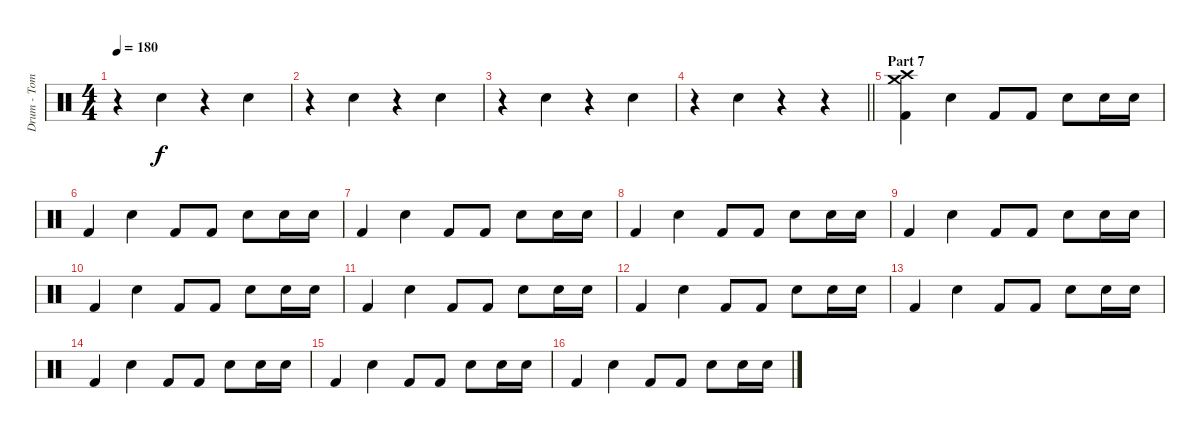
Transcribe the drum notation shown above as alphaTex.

\track ("Drum - Tom" "Drum - Tom") {instrument percussion}
\staff {score}
\articulation defaults
\ts (4 4)
\tempo 180
\clef neutral
\ks c
r.4{dy f} "Snare (hit) 2".4 r.4 "Snare (hit) 2".4 |
r.4 "Snare (hit) 2".4 r.4 "Snare (hit) 2".4 |
r.4 "Snare (hit) 2".4 r.4 "Snare (hit) 2".4 |
\barLineRight lightlight
r.4 "Snare (hit) 2".4 r.4 r.4 |
\section ("" "Part 7")
("Crash medium (hit)" "Crash high (hit)" "Kick (hit) 2").4 "Snare (hit) 2".4 "Kick (hit) 2".8 "Kick (hit) 2".8 "Snare (hit) 2".8 "Electric Snare (hit)".16 "Electric Snare (hit)".16 |
"Kick (hit) 2".4 "Snare (hit) 2".4 "Kick (hit) 2".8 "Kick (hit) 2".8 "Snare (hit) 2".8 "Electric Snare (hit)".16 "Electric Snare (hit)".16 |
"Kick (hit) 2".4 "Snare (hit) 2".4 "Kick (hit) 2".8 "Kick (hit) 2".8 "Snare (hit) 2".8 "Electric Snare (hit)".16 "Electric Snare (hit)".16 |
"Kick (hit) 2".4 "Snare (hit) 2".4 "Kick (hit) 2".8 "Kick (hit) 2".8 "Snare (hit) 2".8 "Electric Snare (hit)".16 "Electric Snare (hit)".16 |
"Kick (hit) 2".4 "Snare (hit) 2".4 "Kick (hit) 2".8 "Kick (hit) 2".8 "Snare (hit) 2".8 "Electric Snare (hit)".16 "Electric Snare (hit)".16 |
"Kick (hit) 2".4 "Snare (hit) 2".4 "Kick (hit) 2".8 "Kick (hit) 2".8 "Snare (hit) 2".8 "Electric Snare (hit)".16 "Electric Snare (hit)".16 |
"Kick (hit) 2".4 "Snare (hit) 2".4 "Kick (hit) 2".8 "Kick (hit) 2".8 "Snare (hit) 2".8 "Electric Snare (hit)".16 "Electric Snare (hit)".16 |
"Kick (hit) 2".4 "Snare (hit) 2".4 "Kick (hit) 2".8 "Kick (hit) 2".8 "Snare (hit) 2".8 "Electric Snare (hit)".16 "Electric Snare (hit)".16 |
"Kick (hit) 2".4 "Snare (hit) 2".4 "Kick (hit) 2".8 "Kick (hit) 2".8 "Snare (hit) 2".8 "Electric Snare (hit)".16 "Electric Snare (hit)".16 |
"Kick (hit) 2".4 "Snare (hit) 2".4 "Kick (hit) 2".8 "Kick (hit) 2".8 "Snare (hit) 2".8 "Electric Snare (hit)".16 "Electric Snare (hit)".16 |
"Kick (hit) 2".4 "Snare (hit) 2".4 "Kick (hit) 2".8 "Kick (hit) 2".8 "Snare (hit) 2".8 "Electric Snare (hit)".16 "Electric Snare (hit)".16 |
"Kick (hit) 2".4 "Snare (hit) 2".4 "Kick (hit) 2".8 "Kick (hit) 2".8 "Snare (hit) 2".8 "Electric Snare (hit)".16 "Electric Snare (hit)".16
